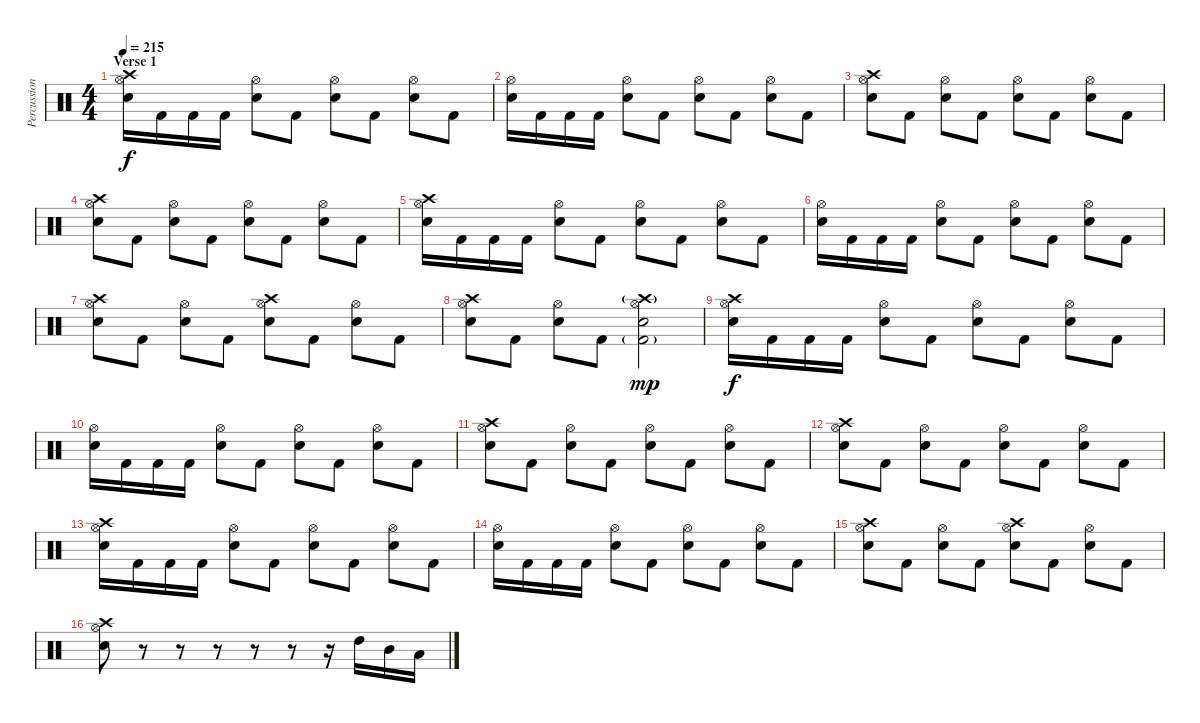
\track ("Percussions" "Percussion") {instrument percussion}
\staff {score}
\articulation defaults
\ts (4 4)
\section ("" "Verse 1")
\tempo 215
\clef neutral
\ks c
("Crash high (hit)" "Hi-Hat (open)" "Electric Snare (hit)").16{dy f} "Kick (hit) 2".16 "Kick (hit) 2".16 "Kick (hit) 2".16 ("Hi-Hat (open)" "Electric Snare (hit)").8 "Kick (hit) 2".8 ("Hi-Hat (open)" "Electric Snare (hit)").8 "Kick (hit) 2".8 ("Hi-Hat (open)" "Electric Snare (hit)").8 "Kick (hit) 2".8 |
("Hi-Hat (open)" "Electric Snare (hit)").16 "Kick (hit) 2".16 "Kick (hit) 2".16 "Kick (hit) 2".16 ("Hi-Hat (open)" "Electric Snare (hit)").8 "Kick (hit) 2".8 ("Hi-Hat (open)" "Electric Snare (hit)").8 "Kick (hit) 2".8 ("Hi-Hat (open)" "Electric Snare (hit)").8 "Kick (hit) 2".8 |
("Crash high (hit)" "Hi-Hat (open)" "Electric Snare (hit)").8 "Kick (hit) 2".8 ("Hi-Hat (open)" "Electric Snare (hit)").8 "Kick (hit) 2".8 ("Hi-Hat (open)" "Electric Snare (hit)").8 "Kick (hit) 2".8 ("Hi-Hat (open)" "Electric Snare (hit)").8 "Kick (hit) 2".8 |
("Crash high (hit)" "Hi-Hat (open)" "Electric Snare (hit)").8 "Kick (hit) 2".8 ("Hi-Hat (open)" "Electric Snare (hit)").8 "Kick (hit) 2".8 ("Hi-Hat (open)" "Electric Snare (hit)").8 "Kick (hit) 2".8 ("Hi-Hat (open)" "Electric Snare (hit)").8 "Kick (hit) 2".8 |
("Crash high (hit)" "Hi-Hat (open)" "Electric Snare (hit)").16 "Kick (hit) 2".16 "Kick (hit) 2".16 "Kick (hit) 2".16 ("Hi-Hat (open)" "Electric Snare (hit)").8 "Kick (hit) 2".8 ("Hi-Hat (open)" "Electric Snare (hit)").8 "Kick (hit) 2".8 ("Hi-Hat (open)" "Electric Snare (hit)").8 "Kick (hit) 2".8 |
("Hi-Hat (open)" "Electric Snare (hit)").16 "Kick (hit) 2".16 "Kick (hit) 2".16 "Kick (hit) 2".16 ("Hi-Hat (open)" "Electric Snare (hit)").8 "Kick (hit) 2".8 ("Hi-Hat (open)" "Electric Snare (hit)").8 "Kick (hit) 2".8 ("Hi-Hat (open)" "Electric Snare (hit)").8 "Kick (hit) 2".8 |
("Crash high (hit)" "Hi-Hat (open)" "Electric Snare (hit)").8 "Kick (hit) 2".8 ("Hi-Hat (open)" "Electric Snare (hit)").8 "Kick (hit) 2".8 ("Crash high (hit)" "Hi-Hat (open)" "Electric Snare (hit)").8 "Kick (hit) 2".8 ("Hi-Hat (open)" "Electric Snare (hit)").8 "Kick (hit) 2".8 |
("Crash high (hit)" "Hi-Hat (open)" "Electric Snare (hit)").8 "Kick (hit) 2".8 ("Hi-Hat (open)" "Electric Snare (hit)").8 "Kick (hit) 2".8 ("Crash high (hit)"{g} "Hi-Hat (open)" "Electric Snare (hit)" "Kick (hit) 2"{g}).2{dy mp} |
("Crash high (hit)" "Hi-Hat (open)" "Electric Snare (hit)").16{dy f} "Kick (hit) 2".16 "Kick (hit) 2".16 "Kick (hit) 2".16 ("Hi-Hat (open)" "Electric Snare (hit)").8 "Kick (hit) 2".8 ("Hi-Hat (open)" "Electric Snare (hit)").8 "Kick (hit) 2".8 ("Hi-Hat (open)" "Electric Snare (hit)").8 "Kick (hit) 2".8 |
("Hi-Hat (open)" "Electric Snare (hit)").16 "Kick (hit) 2".16 "Kick (hit) 2".16 "Kick (hit) 2".16 ("Hi-Hat (open)" "Electric Snare (hit)").8 "Kick (hit) 2".8 ("Hi-Hat (open)" "Electric Snare (hit)").8 "Kick (hit) 2".8 ("Hi-Hat (open)" "Electric Snare (hit)").8 "Kick (hit) 2".8 |
("Crash high (hit)" "Hi-Hat (open)" "Electric Snare (hit)").8 "Kick (hit) 2".8 ("Hi-Hat (open)" "Electric Snare (hit)").8 "Kick (hit) 2".8 ("Hi-Hat (open)" "Electric Snare (hit)").8 "Kick (hit) 2".8 ("Hi-Hat (open)" "Electric Snare (hit)").8 "Kick (hit) 2".8 |
("Crash high (hit)" "Hi-Hat (open)" "Electric Snare (hit)").8 "Kick (hit) 2".8 ("Hi-Hat (open)" "Electric Snare (hit)").8 "Kick (hit) 2".8 ("Hi-Hat (open)" "Electric Snare (hit)").8 "Kick (hit) 2".8 ("Hi-Hat (open)" "Electric Snare (hit)").8 "Kick (hit) 2".8 |
("Crash high (hit)" "Hi-Hat (open)" "Electric Snare (hit)").16 "Kick (hit) 2".16 "Kick (hit) 2".16 "Kick (hit) 2".16 ("Hi-Hat (open)" "Electric Snare (hit)").8 "Kick (hit) 2".8 ("Hi-Hat (open)" "Electric Snare (hit)").8 "Kick (hit) 2".8 ("Hi-Hat (open)" "Electric Snare (hit)").8 "Kick (hit) 2".8 |
("Hi-Hat (open)" "Electric Snare (hit)").16 "Kick (hit) 2".16 "Kick (hit) 2".16 "Kick (hit) 2".16 ("Hi-Hat (open)" "Electric Snare (hit)").8 "Kick (hit) 2".8 ("Hi-Hat (open)" "Electric Snare (hit)").8 "Kick (hit) 2".8 ("Hi-Hat (open)" "Electric Snare (hit)").8 "Kick (hit) 2".8 |
("Crash high (hit)" "Hi-Hat (open)" "Electric Snare (hit)").8 "Kick (hit) 2".8 ("Hi-Hat (open)" "Electric Snare (hit)").8 "Kick (hit) 2".8 ("Crash high (hit)" "Hi-Hat (open)" "Electric Snare (hit)").8 "Kick (hit) 2".8 ("Hi-Hat (open)" "Electric Snare (hit)").8 "Kick (hit) 2".8 |
("Crash high (hit)" "Hi-Hat (open)" "Electric Snare (hit)").8 r.8 r.8 r.8 r.8 r.8 r.16 "High Tom (hit)".16 "Mid Tom (hit)".16 "Low Tom (hit)".16
